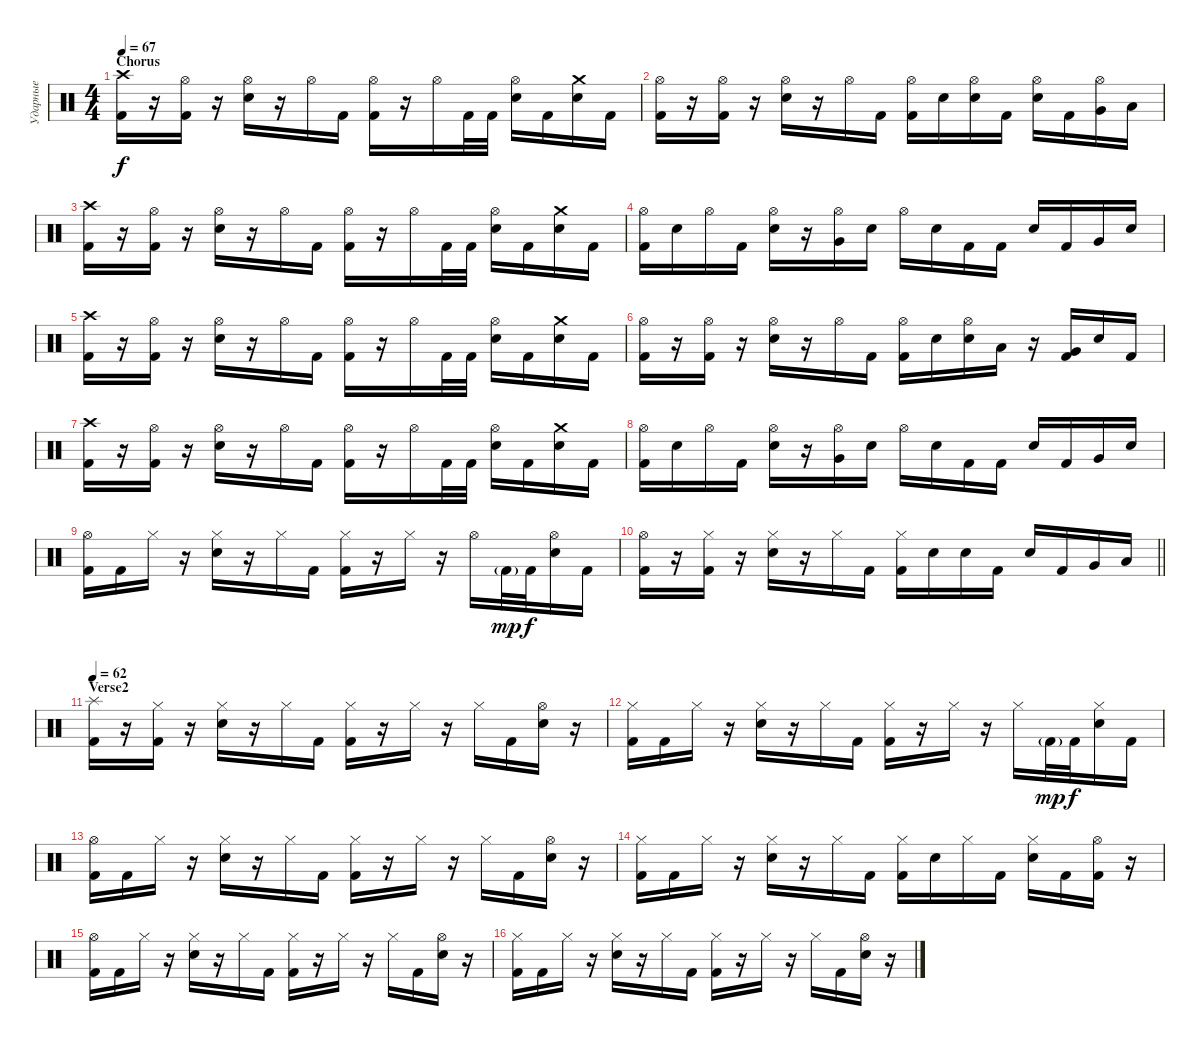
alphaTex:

\track ("Ударные" "Ударные") {instrument percussion}
\staff {score}
\articulation defaults
\ts (4 4)
\section ("" "Chorus")
\tempo 67
\clef neutral
\ks c
("Crash high (hit)" "Kick (hit) 2").16{dy f} r.16 ("Hi-Hat (open)" "Kick (hit) 2").16 r.16 ("Hi-Hat (open)" "Snare (hit) 2").16 r.16 "Hi-Hat (open)".16 "Kick (hit) 2".16 ("Hi-Hat (open)" "Kick (hit) 2").16 r.16 "Hi-Hat (open)".16 "Kick (hit) 2".32 "Kick (hit) 2".32 ("Hi-Hat (open)" "Snare (hit) 2").16 "Kick (hit) 2".16 ("Crash medium (hit)" "Snare (hit) 2").16 "Kick (hit) 2".16 |
("Hi-Hat (open)" "Kick (hit) 2").16 r.16 ("Hi-Hat (open)" "Kick (hit) 2").16 r.16 ("Hi-Hat (open)" "Snare (hit) 2").16 r.16 "Hi-Hat (open)".16 "Kick (hit) 2".16 ("Hi-Hat (open)" "Kick (hit) 2").16 "Snare (hit) 2".16 ("Hi-Hat (open)" "Snare (hit) 2").16 "Kick (hit) 2".16 ("Hi-Hat (open)" "Snare (hit) 2").16 "Kick (hit) 2".16 ("Hi-Hat (open)" "Very Low Tom (hit)").16 "Low Floor Tom (hit)".16 |
("Crash high (hit)" "Kick (hit) 2").16 r.16 ("Hi-Hat (open)" "Kick (hit) 2").16 r.16 ("Hi-Hat (open)" "Snare (hit) 2").16 r.16 "Hi-Hat (open)".16 "Kick (hit) 2".16 ("Hi-Hat (open)" "Kick (hit) 2").16 r.16 "Hi-Hat (open)".16 "Kick (hit) 2".32 "Kick (hit) 2".32 ("Hi-Hat (open)" "Snare (hit) 2").16 "Kick (hit) 2".16 ("Crash medium (hit)" "Snare (hit) 2").16 "Kick (hit) 2".16 |
("Hi-Hat (open)" "Kick (hit) 2").16 "Snare (hit) 2".16 "Hi-Hat (open)".16 "Kick (hit) 2".16 ("Hi-Hat (open)" "Snare (hit) 2").16 r.16 ("Hi-Hat (open)" "Very Low Tom (hit)").16 "Snare (hit) 2".16 "Hi-Hat (open)".16 "Snare (hit) 2".16 "Kick (hit) 2".16 "Kick (hit) 2".16 "Snare (hit) 2".16 "Kick (hit) 2".16 "Very Low Tom (hit)".16 "Snare (hit) 2".16 |
("Crash high (hit)" "Kick (hit) 2").16 r.16 ("Hi-Hat (open)" "Kick (hit) 2").16 r.16 ("Hi-Hat (open)" "Snare (hit) 2").16 r.16 "Hi-Hat (open)".16 "Kick (hit) 2".16 ("Hi-Hat (open)" "Kick (hit) 2").16 r.16 "Hi-Hat (open)".16 "Kick (hit) 2".32 "Kick (hit) 2".32 ("Hi-Hat (open)" "Snare (hit) 2").16 "Kick (hit) 2".16 ("Crash medium (hit)" "Snare (hit) 2").16 "Kick (hit) 2".16 |
("Hi-Hat (open)" "Kick (hit) 2").16 r.16 ("Hi-Hat (open)" "Kick (hit) 2").16 r.16 ("Hi-Hat (open)" "Snare (hit) 2").16 r.16 "Hi-Hat (open)".16 "Kick (hit) 2".16 ("Hi-Hat (open)" "Kick (hit) 2").16 "Snare (hit) 2".16 ("Hi-Hat (open)" "Snare (hit) 2").16 "Low Floor Tom (hit)".16 r.16 ("Very Low Tom (hit)" "Kick (hit) 2").16 "Snare (hit) 2".16 "Kick (hit) 2".16 |
("Crash high (hit)" "Kick (hit) 2").16 r.16 ("Hi-Hat (open)" "Kick (hit) 2").16 r.16 ("Hi-Hat (open)" "Snare (hit) 2").16 r.16 "Hi-Hat (open)".16 "Kick (hit) 2".16 ("Hi-Hat (open)" "Kick (hit) 2").16 r.16 "Hi-Hat (open)".16 "Kick (hit) 2".32 "Kick (hit) 2".32 ("Hi-Hat (open)" "Snare (hit) 2").16 "Kick (hit) 2".16 ("Crash medium (hit)" "Snare (hit) 2").16 "Kick (hit) 2".16 |
("Hi-Hat (open)" "Kick (hit) 2").16 "Snare (hit) 2".16 "Hi-Hat (open)".16 "Kick (hit) 2".16 ("Hi-Hat (open)" "Snare (hit) 2").16 r.16 ("Hi-Hat (open)" "Very Low Tom (hit)").16 "Snare (hit) 2".16 "Hi-Hat (open)".16 "Snare (hit) 2".16 "Kick (hit) 2".16 "Kick (hit) 2".16 "Snare (hit) 2".16 "Kick (hit) 2".16 "Very Low Tom (hit)".16 "Snare (hit) 2".16 |
("Hi-Hat (open)" "Kick (hit) 2").16 "Kick (hit) 2".16 "Hi-Hat (closed)".16 r.16 ("Hi-Hat (closed)" "Snare (hit) 2").16 r.16 "Hi-Hat (closed)".16 "Kick (hit) 2".16 ("Hi-Hat (closed)" "Kick (hit) 2").16 r.16 "Hi-Hat (closed)".16 r.16 "Hi-Hat (open)".16 "Kick (hit) 2"{g}.32{dy mp} "Kick (hit) 2".32{dy f} ("Hi-Hat (open)" "Snare (hit) 2").16 "Kick (hit) 2".16 |
\barLineRight lightlight
("Hi-Hat (open)" "Kick (hit) 2").16 r.16 ("Hi-Hat (closed)" "Kick (hit) 2").16 r.16 ("Hi-Hat (closed)" "Snare (hit) 2").16 r.16 "Hi-Hat (closed)".16 "Kick (hit) 2".16 ("Hi-Hat (closed)" "Kick (hit) 2").16 "Snare (hit) 2".16 "Snare (hit) 2".16 "Kick (hit) 2".16 "Snare (hit) 2".16 "Kick (hit) 2".16 "Very Low Tom (hit)".16 "Low Floor Tom (hit)".16 |
\section ("" "Verse2")
\tempo 62
("Splash (hit)" "Kick (hit) 2").16 r.16 ("Hi-Hat (closed)" "Kick (hit) 2").16 r.16 ("Hi-Hat (closed)" "Snare (hit) 2").16 r.16 "Hi-Hat (closed)".16 "Kick (hit) 2".16 ("Hi-Hat (closed)" "Kick (hit) 2").16 r.16 "Hi-Hat (closed)".16 r.16 "Hi-Hat (closed)".16 "Kick (hit) 2".16 ("Hi-Hat (open)" "Snare (hit) 2").16 r.16 |
("Hi-Hat (closed)" "Kick (hit) 2").16 "Kick (hit) 2".16 "Hi-Hat (closed)".16 r.16 ("Hi-Hat (closed)" "Snare (hit) 2").16 r.16 "Hi-Hat (closed)".16 "Kick (hit) 2".16 ("Hi-Hat (closed)" "Kick (hit) 2").16 r.16 "Hi-Hat (closed)".16 r.16 "Hi-Hat (closed)".16 "Kick (hit) 2"{g}.32{dy mp} "Kick (hit) 2".32{dy f} ("Hi-Hat (closed)" "Snare (hit) 2").16 "Kick (hit) 2".16 |
("Hi-Hat (open)" "Kick (hit) 2").16 "Kick (hit) 2".16 "Hi-Hat (closed)".16 r.16 ("Hi-Hat (closed)" "Snare (hit) 2").16 r.16 "Hi-Hat (closed)".16 "Kick (hit) 2".16 ("Hi-Hat (closed)" "Kick (hit) 2").16 r.16 "Hi-Hat (closed)".16 r.16 "Hi-Hat (closed)".16 "Kick (hit) 2".16 ("Hi-Hat (open)" "Snare (hit) 2").16 r.16 |
("Hi-Hat (closed)" "Kick (hit) 2").16 "Kick (hit) 2".16 "Hi-Hat (closed)".16 r.16 ("Hi-Hat (closed)" "Snare (hit) 2").16 r.16 "Hi-Hat (closed)".16 "Kick (hit) 2".16 ("Hi-Hat (closed)" "Kick (hit) 2").16 "Snare (hit) 2".16 "Hi-Hat (closed)".16 "Kick (hit) 2".16 ("Hi-Hat (closed)" "Snare (hit) 2").16 "Kick (hit) 2".16 ("Hi-Hat (open)" "Kick (hit) 2").16 r.16 |
("Hi-Hat (open)" "Kick (hit) 2").16 "Kick (hit) 2".16 "Hi-Hat (closed)".16 r.16 ("Hi-Hat (closed)" "Snare (hit) 2").16 r.16 "Hi-Hat (closed)".16 "Kick (hit) 2".16 ("Hi-Hat (closed)" "Kick (hit) 2").16 r.16 "Hi-Hat (closed)".16 r.16 "Hi-Hat (closed)".16 "Kick (hit) 2".16 ("Hi-Hat (open)" "Snare (hit) 2").16 r.16 |
("Hi-Hat (closed)" "Kick (hit) 2").16 "Kick (hit) 2".16 "Hi-Hat (closed)".16 r.16 ("Hi-Hat (closed)" "Snare (hit) 2").16 r.16 "Hi-Hat (closed)".16 "Kick (hit) 2".16 ("Hi-Hat (closed)" "Kick (hit) 2").16 r.16 "Hi-Hat (closed)".16 r.16 "Hi-Hat (closed)".16 "Kick (hit) 2".16 ("Hi-Hat (open)" "Snare (hit) 2").16 r.16
